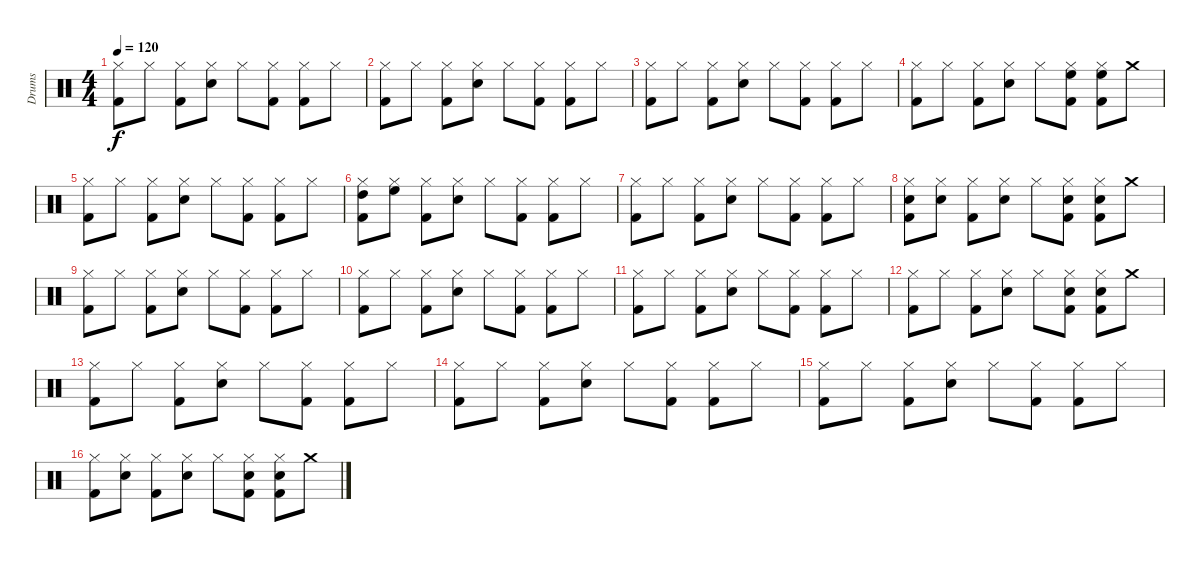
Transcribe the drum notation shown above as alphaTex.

\track ("Drums" "Drums") {instrument percussion}
\staff {score}
\articulation defaults
\ts (4 4)
\tempo 120
\clef neutral
\ks c
("Hi-Hat (closed)" "Kick (hit) 2").8{dy f} "Hi-Hat (closed)".8 ("Hi-Hat (closed)" "Kick (hit) 2").8 ("Hi-Hat (closed)" "Electric Snare (hit)").8 "Hi-Hat (closed)".8 ("Hi-Hat (closed)" "Kick (hit) 2").8 ("Hi-Hat (closed)" "Kick (hit) 2").8 "Hi-Hat (closed)".8 |
("Hi-Hat (closed)" "Kick (hit) 2").8 "Hi-Hat (closed)".8 ("Hi-Hat (closed)" "Kick (hit) 2").8 ("Hi-Hat (closed)" "Electric Snare (hit)").8 "Hi-Hat (closed)".8 ("Hi-Hat (closed)" "Kick (hit) 2").8 ("Hi-Hat (closed)" "Kick (hit) 2").8 "Hi-Hat (closed)".8 |
("Hi-Hat (closed)" "Kick (hit) 2").8 "Hi-Hat (closed)".8 ("Hi-Hat (closed)" "Kick (hit) 2").8 ("Hi-Hat (closed)" "Electric Snare (hit)").8 "Hi-Hat (closed)".8 ("Hi-Hat (closed)" "Kick (hit) 2").8 ("Hi-Hat (closed)" "Kick (hit) 2").8 "Hi-Hat (closed)".8 |
("Hi-Hat (closed)" "Kick (hit) 2").8 "Hi-Hat (closed)".8 ("Hi-Hat (closed)" "Kick (hit) 2").8 ("Hi-Hat (closed)" "Electric Snare (hit)").8 "Hi-Hat (closed)".8 ("Hi-Hat (closed)" "High Floor Tom (hit)" "Kick (hit) 2").8 ("Hi-Hat (closed)" "High Floor Tom (hit)" "Kick (hit) 2").8 "Crash medium (hit)".8 |
("Hi-Hat (closed)" "Kick (hit) 2").8 "Hi-Hat (closed)".8 ("Hi-Hat (closed)" "Kick (hit) 2").8 ("Hi-Hat (closed)" "Electric Snare (hit)").8 "Hi-Hat (closed)".8 ("Hi-Hat (closed)" "Kick (hit) 2").8 ("Hi-Hat (closed)" "Kick (hit) 2").8 "Hi-Hat (closed)".8 |
("Hi-Hat (closed)" "High Tom (hit)" "Kick (hit) 2").8 ("Hi-Hat (closed)" "High Floor Tom (hit)").8 ("Hi-Hat (closed)" "Kick (hit) 2").8 ("Hi-Hat (closed)" "Electric Snare (hit)").8 "Hi-Hat (closed)".8 ("Hi-Hat (closed)" "Kick (hit) 2").8 ("Hi-Hat (closed)" "Kick (hit) 2").8 "Hi-Hat (closed)".8 |
("Hi-Hat (closed)" "Kick (hit) 2").8 "Hi-Hat (closed)".8 ("Hi-Hat (closed)" "Kick (hit) 2").8 ("Hi-Hat (closed)" "Electric Snare (hit)").8 "Hi-Hat (closed)".8 ("Hi-Hat (closed)" "Kick (hit) 2").8 ("Hi-Hat (closed)" "Kick (hit) 2").8 "Hi-Hat (closed)".8 |
("Hi-Hat (closed)" "Electric Snare (hit)" "Kick (hit) 2").8 ("Hi-Hat (closed)" "Electric Snare (hit)").8 ("Hi-Hat (closed)" "Kick (hit) 2").8 ("Hi-Hat (closed)" "Electric Snare (hit)").8 "Hi-Hat (closed)".8 ("Hi-Hat (closed)" "Electric Snare (hit)" "Kick (hit) 2").8 ("Hi-Hat (closed)" "Electric Snare (hit)" "Kick (hit) 2").8 "Crash medium (hit)".8 |
("Hi-Hat (closed)" "Kick (hit) 2").8 "Hi-Hat (closed)".8 ("Hi-Hat (closed)" "Kick (hit) 2").8 ("Hi-Hat (closed)" "Electric Snare (hit)").8 "Hi-Hat (closed)".8 ("Hi-Hat (closed)" "Kick (hit) 2").8 ("Hi-Hat (closed)" "Kick (hit) 2").8 "Hi-Hat (closed)".8 |
("Hi-Hat (closed)" "Kick (hit) 2").8 "Hi-Hat (closed)".8 ("Hi-Hat (closed)" "Kick (hit) 2").8 ("Hi-Hat (closed)" "Electric Snare (hit)").8 "Hi-Hat (closed)".8 ("Hi-Hat (closed)" "Kick (hit) 2").8 ("Hi-Hat (closed)" "Kick (hit) 2").8 "Hi-Hat (closed)".8 |
("Hi-Hat (closed)" "Kick (hit) 2").8 "Hi-Hat (closed)".8 ("Hi-Hat (closed)" "Kick (hit) 2").8 ("Hi-Hat (closed)" "Electric Snare (hit)").8 "Hi-Hat (closed)".8 ("Hi-Hat (closed)" "Kick (hit) 2").8 ("Hi-Hat (closed)" "Kick (hit) 2").8 "Hi-Hat (closed)".8 |
("Hi-Hat (closed)" "Kick (hit) 2").8 "Hi-Hat (closed)".8 ("Hi-Hat (closed)" "Kick (hit) 2").8 ("Hi-Hat (closed)" "Electric Snare (hit)").8 "Hi-Hat (closed)".8 ("Hi-Hat (closed)" "Electric Snare (hit)" "Kick (hit) 2").8 ("Hi-Hat (closed)" "Electric Snare (hit)" "Kick (hit) 2").8 "Crash medium (hit)".8 |
("Hi-Hat (closed)" "Kick (hit) 2").8 "Hi-Hat (closed)".8 ("Hi-Hat (closed)" "Kick (hit) 2").8 ("Hi-Hat (closed)" "Electric Snare (hit)").8 "Hi-Hat (closed)".8 ("Hi-Hat (closed)" "Kick (hit) 2").8 ("Hi-Hat (closed)" "Kick (hit) 2").8 "Hi-Hat (closed)".8 |
("Hi-Hat (closed)" "Kick (hit) 2").8 "Hi-Hat (closed)".8 ("Hi-Hat (closed)" "Kick (hit) 2").8 ("Hi-Hat (closed)" "Electric Snare (hit)").8 "Hi-Hat (closed)".8 ("Hi-Hat (closed)" "Kick (hit) 2").8 ("Hi-Hat (closed)" "Kick (hit) 2").8 "Hi-Hat (closed)".8 |
("Hi-Hat (closed)" "Kick (hit) 2").8 "Hi-Hat (closed)".8 ("Hi-Hat (closed)" "Kick (hit) 2").8 ("Hi-Hat (closed)" "Electric Snare (hit)").8 "Hi-Hat (closed)".8 ("Hi-Hat (closed)" "Kick (hit) 2").8 ("Hi-Hat (closed)" "Kick (hit) 2").8 "Hi-Hat (closed)".8 |
("Hi-Hat (closed)" "Kick (hit) 2").8 ("Hi-Hat (closed)" "Electric Snare (hit)").8 ("Hi-Hat (closed)" "Kick (hit) 2").8 ("Hi-Hat (closed)" "Electric Snare (hit)").8 "Hi-Hat (closed)".8 ("Hi-Hat (closed)" "Electric Snare (hit)" "Kick (hit) 2").8 ("Hi-Hat (closed)" "Electric Snare (hit)" "Kick (hit) 2").8 "Crash medium (hit)".8
